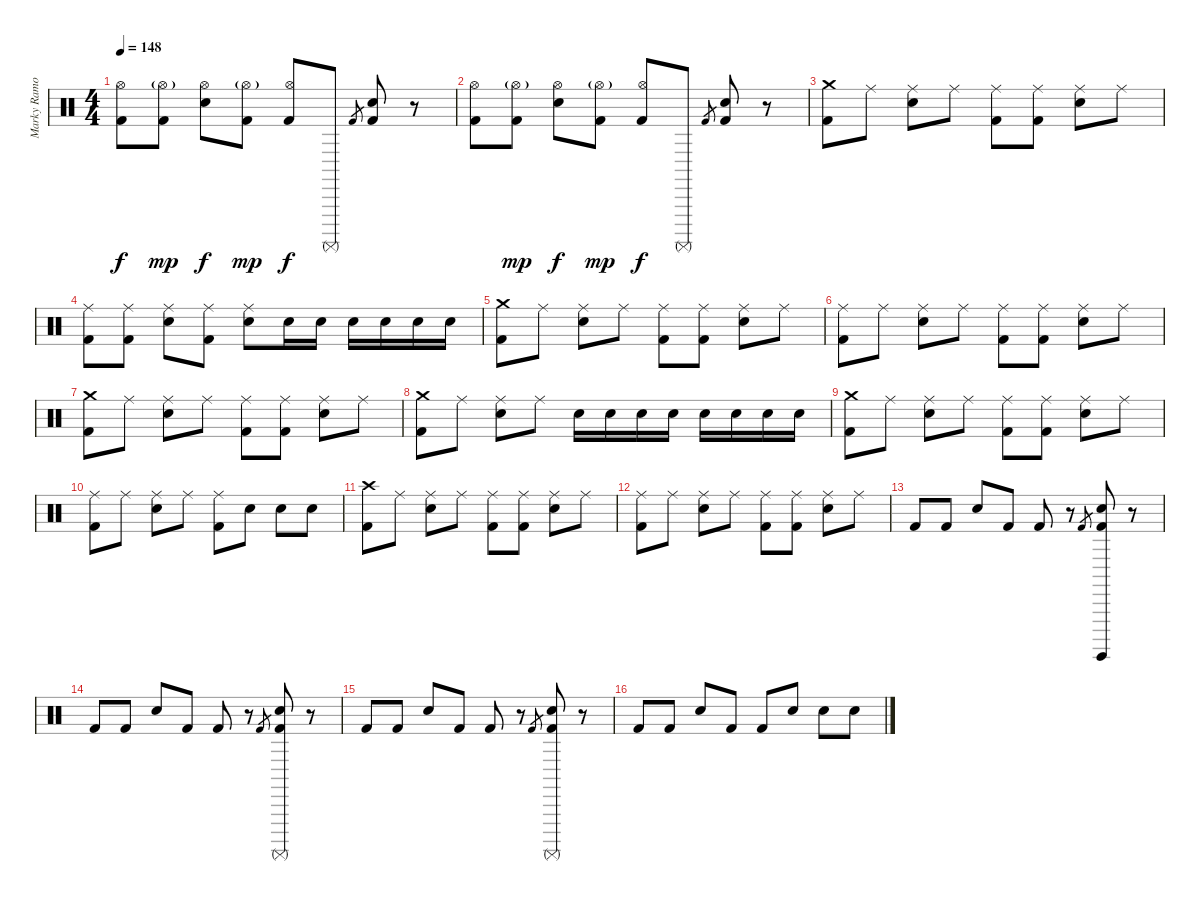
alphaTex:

\track ("Marky Ramone" "Marky Ramo") {instrument percussion}
\staff {score}
\articulation defaults
\ts (4 4)
\tempo 148
\clef neutral
\ks c
("Hi-Hat (open)" "Kick (hit) 2").8{dy f} ("Hi-Hat (open)"{g} "Kick (hit) 2").8{dy mp} ("Hi-Hat (open)" "Electric Snare (hit)").8{dy f} ("Hi-Hat (open)"{g} "Kick (hit) 2").8{dy mp} ("Hi-Hat (open)" "Kick (hit) 2").8{dy f} "Surdo (mute)".8 "Kick (hit) 2".8{gr} ("Electric Snare (hit)" "Kick (hit) 2").8{bd 480} r.8 |
("Hi-Hat (open)" "Kick (hit) 2").8 ("Hi-Hat (open)"{g} "Kick (hit) 2").8{dy mp} ("Hi-Hat (open)" "Electric Snare (hit)").8{dy f} ("Hi-Hat (open)"{g} "Kick (hit) 2").8{dy mp} ("Hi-Hat (open)" "Kick (hit) 2").8{dy f} "Surdo (mute)".8 "Kick (hit) 2".8{gr} ("Electric Snare (hit)" "Kick (hit) 2").8{bd 480} r.8 |
("Crash medium (hit)" "Kick (hit) 2").8 "Ride (middle)".8 ("Ride (middle)" "Electric Snare (hit)").8 "Ride (middle)".8 ("Ride (middle)" "Kick (hit) 2").8 ("Ride (middle)" "Kick (hit) 2").8 ("Ride (middle)" "Electric Snare (hit)").8 "Ride (middle)".8 |
("Ride (middle)" "Kick (hit) 2").8 ("Ride (middle)" "Kick (hit) 2").8 ("Ride (middle)" "Electric Snare (hit)").8 ("Ride (middle)" "Kick (hit) 2").8 ("Ride (middle)" "Electric Snare (hit)").8 "Electric Snare (hit)".16 "Electric Snare (hit)".16 "Electric Snare (hit)".16 "Electric Snare (hit)".16 "Electric Snare (hit)".16 "Electric Snare (hit)".16 |
("Crash medium (hit)" "Kick (hit) 2").8 "Ride (middle)".8 ("Ride (middle)" "Electric Snare (hit)").8 "Ride (middle)".8 ("Ride (middle)" "Kick (hit) 2").8 ("Ride (middle)" "Kick (hit) 2").8 ("Ride (middle)" "Electric Snare (hit)").8 "Ride (middle)".8 |
("Ride (middle)" "Kick (hit) 2").8 "Ride (middle)".8 ("Ride (middle)" "Electric Snare (hit)").8 "Ride (middle)".8 ("Ride (middle)" "Kick (hit) 2").8 ("Ride (middle)" "Kick (hit) 2").8 ("Ride (middle)" "Electric Snare (hit)").8 "Ride (middle)".8 |
("Crash medium (hit)" "Kick (hit) 2").8 "Ride (middle)".8 ("Ride (middle)" "Electric Snare (hit)").8 "Ride (middle)".8 ("Ride (middle)" "Kick (hit) 2").8 ("Ride (middle)" "Kick (hit) 2").8 ("Ride (middle)" "Electric Snare (hit)").8 "Ride (middle)".8 |
("Crash medium (hit)" "Kick (hit) 2").8 "Ride (middle)".8 ("Ride (middle)" "Electric Snare (hit)").8 "Ride (middle)".8 "Electric Snare (hit)".16 "Electric Snare (hit)".16 "Electric Snare (hit)".16 "Electric Snare (hit)".16 "Electric Snare (hit)".16 "Electric Snare (hit)".16 "Electric Snare (hit)".16 "Electric Snare (hit)".16 |
("Crash medium (hit)" "Kick (hit) 2").8 "Ride (middle)".8 ("Ride (middle)" "Electric Snare (hit)").8 "Ride (middle)".8 ("Ride (middle)" "Kick (hit) 2").8 ("Ride (middle)" "Kick (hit) 2").8 ("Ride (middle)" "Electric Snare (hit)").8 "Ride (middle)".8 |
("Ride (middle)" "Kick (hit) 2").8 "Ride (middle)".8 ("Ride (middle)" "Electric Snare (hit)").8 "Ride (middle)".8 ("Ride (middle)" "Kick (hit) 2").8 "Electric Snare (hit)".8 "Electric Snare (hit)".8 "Electric Snare (hit)".8 |
("Crash high (hit)" "Kick (hit) 2").8 "Ride (middle)".8 ("Ride (middle)" "Electric Snare (hit)").8 "Ride (middle)".8 ("Ride (middle)" "Kick (hit) 2").8 ("Ride (middle)" "Kick (hit) 2").8 ("Ride (middle)" "Electric Snare (hit)").8 "Ride (middle)".8 |
("Ride (middle)" "Kick (hit) 2").8 "Ride (middle)".8 ("Ride (middle)" "Electric Snare (hit)").8 "Ride (middle)".8 ("Ride (middle)" "Kick (hit) 2").8 ("Ride (middle)" "Kick (hit) 2").8 ("Ride (middle)" "Electric Snare (hit)").8 "Ride (middle)".8 |
"Kick (hit) 2".8 "Kick (hit) 2".8 "Electric Snare (hit)".8 "Kick (hit) 2".8 "Kick (hit) 2".8 r.8 "Kick (hit) 2".8{gr} ("Electric Snare (hit)" "Kick (hit) 2" "Surdo (hit)").8{bd 240} r.8 |
"Kick (hit) 2".8 "Kick (hit) 2".8 "Electric Snare (hit)".8 "Kick (hit) 2".8 "Kick (hit) 2".8 r.8 "Kick (hit) 2".8{gr} ("Electric Snare (hit)" "Kick (hit) 2" "Surdo (mute)").8{bd 240} r.8 |
"Kick (hit) 2".8 "Kick (hit) 2".8 "Electric Snare (hit)".8 "Kick (hit) 2".8 "Kick (hit) 2".8 r.8 "Kick (hit) 2".8{gr} ("Electric Snare (hit)" "Kick (hit) 2" "Surdo (mute)").8{bd 240} r.8 |
"Kick (hit) 2".8 "Kick (hit) 2".8 "Electric Snare (hit)".8 "Kick (hit) 2".8 "Kick (hit) 2".8 "Electric Snare (hit)".8 "Electric Snare (hit)".8 "Electric Snare (hit)".8
